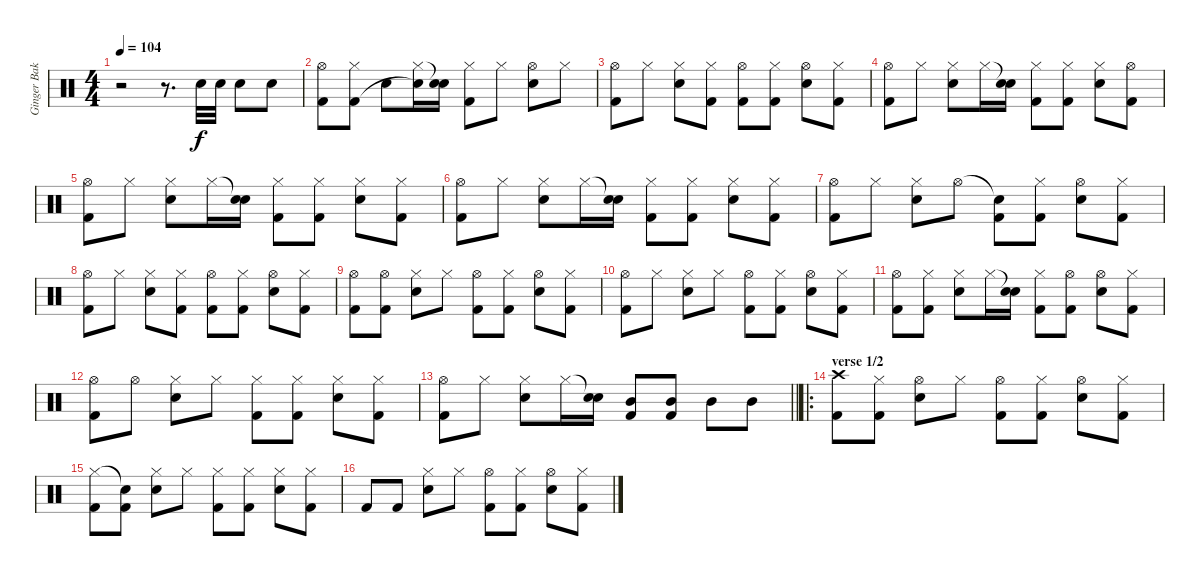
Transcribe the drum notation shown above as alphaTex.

\track ("Ginger Baker" "Ginger Bak") {instrument percussion}
\staff {score}
\articulation defaults
\ts (4 4)
\tempo 104
\clef neutral
\ks c
r.2{dy f} r.8{d} "Snare (hit) 2".32 "Snare (hit) 2".32 "Snare (hit) 2".8 "Snare (hit) 2".8 |
("Hi-Hat (open)" "Kick (hit) 2").8 ("Hi-Hat (closed)" "Kick (hit) 2").8 "Snare (hit) 2".8 ("Hi-Hat (closed)" "Snare (hit)"{t}).16 ("Snare (hit)"{t} "Snare (hit) 2").16 ("Hi-Hat (closed)" "Kick (hit) 2").8 "Hi-Hat (closed)".8 ("Hi-Hat (open)" "Snare (hit) 2").8 "Hi-Hat (closed)".8 |
("Hi-Hat (open)" "Kick (hit) 2").8 "Hi-Hat (closed)".8 ("Hi-Hat (closed)" "Snare (hit) 2").8 ("Hi-Hat (closed)" "Kick (hit) 2").8 ("Hi-Hat (open)" "Kick (hit) 2").8 ("Hi-Hat (closed)" "Kick (hit) 2").8 ("Hi-Hat (open)" "Snare (hit) 2").8 ("Hi-Hat (closed)" "Kick (hit) 2").8 |
("Hi-Hat (open)" "Kick (hit) 2").8 "Hi-Hat (closed)".8 ("Hi-Hat (closed)" "Snare (hit) 2").8 "Hi-Hat (closed)".16 ("Snare (hit)"{t} "Snare (hit) 2").16 ("Hi-Hat (closed)" "Kick (hit) 2").8 ("Hi-Hat (closed)" "Kick (hit) 2").8 ("Hi-Hat (closed)" "Snare (hit) 2").8 ("Hi-Hat (open)" "Kick (hit) 2").8 |
("Hi-Hat (open)" "Kick (hit) 2").8 "Hi-Hat (closed)".8 ("Hi-Hat (closed)" "Snare (hit) 2").8 "Hi-Hat (closed)".16 ("Snare (hit)"{t} "Snare (hit) 2").16 ("Hi-Hat (closed)" "Kick (hit) 2").8 ("Hi-Hat (closed)" "Kick (hit) 2").8 ("Hi-Hat (closed)" "Snare (hit) 2").8 ("Hi-Hat (closed)" "Kick (hit) 2").8 |
("Hi-Hat (open)" "Kick (hit) 2").8 "Hi-Hat (closed)".8 ("Hi-Hat (closed)" "Snare (hit) 2").8 "Hi-Hat (closed)".16 ("Snare (hit)"{t} "Snare (hit) 2").16 ("Hi-Hat (closed)" "Kick (hit) 2").8 ("Hi-Hat (closed)" "Kick (hit) 2").8 ("Hi-Hat (closed)" "Snare (hit) 2").8 ("Hi-Hat (closed)" "Kick (hit) 2").8 |
("Hi-Hat (open)" "Kick (hit) 2").8 "Hi-Hat (closed)".8 ("Hi-Hat (closed)" "Snare (hit) 2").8 "Hi-Hat (open)".8 ("Snare (hit)"{t} "Kick (hit) 2").8 ("Hi-Hat (closed)" "Kick (hit) 2").8 ("Hi-Hat (open)" "Snare (hit) 2").8 ("Hi-Hat (closed)" "Kick (hit) 2").8 |
("Hi-Hat (open)" "Kick (hit) 2").8 "Hi-Hat (closed)".8 ("Hi-Hat (closed)" "Snare (hit) 2").8 ("Hi-Hat (closed)" "Kick (hit) 2").8 ("Hi-Hat (open)" "Kick (hit) 2").8 ("Hi-Hat (closed)" "Kick (hit) 2").8 ("Hi-Hat (open)" "Snare (hit) 2").8 ("Hi-Hat (closed)" "Kick (hit) 2").8 |
("Hi-Hat (open)" "Kick (hit) 2").8 ("Hi-Hat (open)" "Kick (hit) 2").8 ("Hi-Hat (closed)" "Snare (hit) 2").8 "Hi-Hat (closed)".8 ("Hi-Hat (open)" "Kick (hit) 2").8 ("Hi-Hat (closed)" "Kick (hit) 2").8 ("Hi-Hat (open)" "Snare (hit) 2").8 ("Hi-Hat (closed)" "Kick (hit) 2").8 |
("Hi-Hat (open)" "Kick (hit) 2").8 "Hi-Hat (closed)".8 ("Hi-Hat (closed)" "Snare (hit) 2").8 "Hi-Hat (closed)".8 ("Hi-Hat (open)" "Kick (hit) 2").8 ("Hi-Hat (closed)" "Kick (hit) 2").8 ("Hi-Hat (open)" "Snare (hit) 2").8 ("Hi-Hat (closed)" "Kick (hit) 2").8 |
("Hi-Hat (open)" "Kick (hit) 2").8 ("Hi-Hat (closed)" "Kick (hit) 2").8 ("Hi-Hat (closed)" "Snare (hit) 2").8 "Hi-Hat (closed)".16 ("Snare (hit)"{t} "Snare (hit) 2").16 ("Hi-Hat (closed)" "Kick (hit) 2").8 ("Hi-Hat (open)" "Kick (hit) 2").8 ("Hi-Hat (open)" "Snare (hit) 2").8 ("Hi-Hat (closed)" "Kick (hit) 2").8 |
("Hi-Hat (open)" "Kick (hit) 2").8 "Hi-Hat (open)".8 ("Hi-Hat (closed)" "Snare (hit) 2").8 "Hi-Hat (closed)".8 ("Hi-Hat (closed)" "Kick (hit) 2").8 ("Hi-Hat (closed)" "Kick (hit) 2").8 ("Hi-Hat (closed)" "Snare (hit) 2").8 ("Hi-Hat (closed)" "Kick (hit) 2").8 |
\barLineRight lightlight
("Hi-Hat (open)" "Kick (hit) 2").8 "Hi-Hat (closed)".8 ("Hi-Hat (closed)" "Snare (hit) 2").8 "Hi-Hat (closed)".16 ("Snare (hit)"{t} "Snare (hit) 2").16 ("Mid Tom (hit)" "Kick (hit) 2").8 ("Mid Tom (hit)" "Kick (hit) 2").8 "Mid Tom (hit)".8 "Mid Tom (hit)".8 |
\ro
\section ("" "verse 1/2")
("Crash high (hit)" "Kick (hit) 2").8 ("Hi-Hat (closed)" "Kick (hit) 2").8 ("Hi-Hat (open)" "Snare (hit) 2").8 "Hi-Hat (closed)".8 ("Hi-Hat (open)" "Kick (hit) 2").8 ("Hi-Hat (closed)" "Kick (hit) 2").8 ("Hi-Hat (open)" "Snare (hit) 2").8 ("Hi-Hat (closed)" "Kick (hit) 2").8 |
("Hi-Hat (closed)" "Kick (hit) 2").8 ("Snare (hit)"{t} "Kick (hit) 2").8 ("Hi-Hat (closed)" "Snare (hit) 2").8 "Hi-Hat (closed)".8 ("Hi-Hat (closed)" "Kick (hit) 2").8 ("Hi-Hat (closed)" "Kick (hit) 2").8 ("Hi-Hat (closed)" "Snare (hit) 2").8 ("Hi-Hat (closed)" "Kick (hit) 2").8 |
"Kick (hit) 2".8 "Kick (hit) 2".8 ("Hi-Hat (closed)" "Snare (hit) 2").8 "Hi-Hat (closed)".8 ("Hi-Hat (open)" "Kick (hit) 2").8 ("Hi-Hat (closed)" "Kick (hit) 2").8 ("Hi-Hat (open)" "Snare (hit) 2").8 ("Hi-Hat (closed)" "Kick (hit) 2").8
